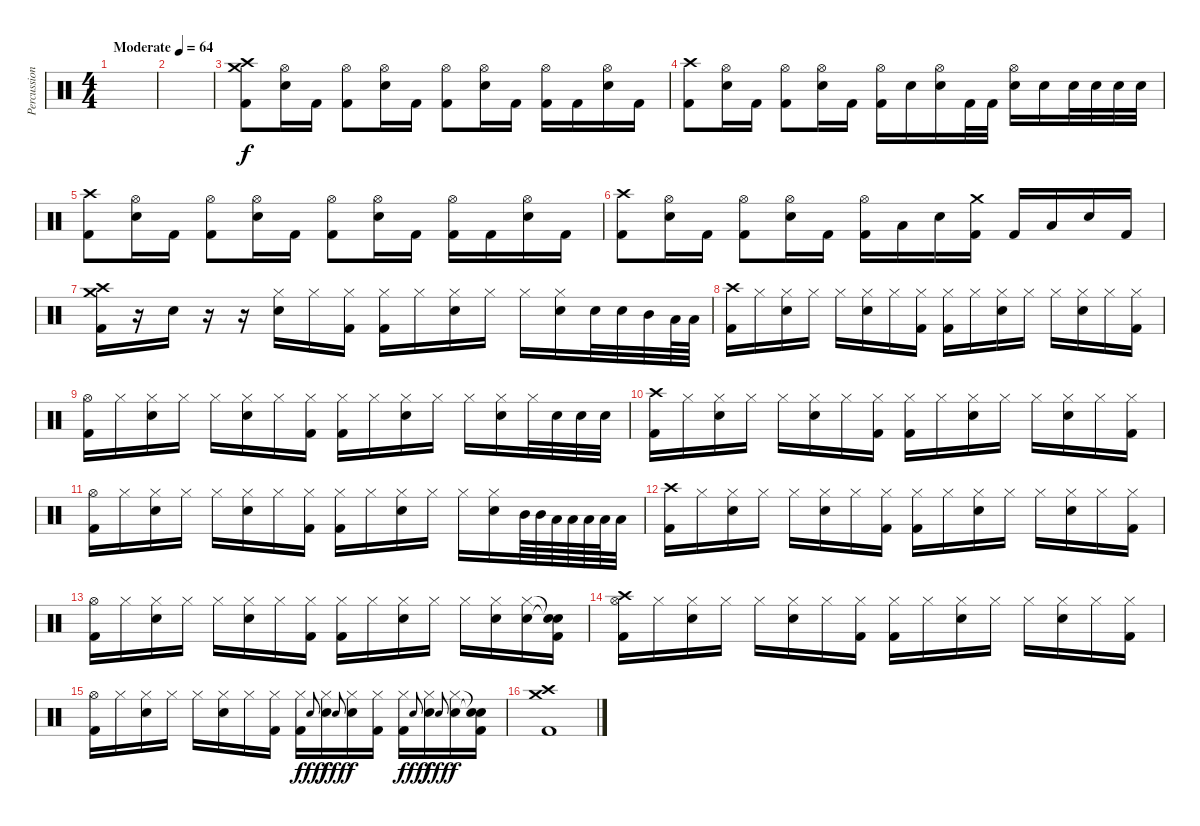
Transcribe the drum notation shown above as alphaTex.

\track ("Percussion" "Percussion") {instrument percussion}
\staff {score}
\articulation defaults
\ts (4 4)
\tempo (64 "Moderate")
\clef neutral
\ks c
|
|
("Crash high (hit)" "Crash medium (hit)" "Kick (hit) 2").8 ("Hi-Hat (open)" "Electric Snare (hit)").16 "Kick (hit) 2".16 ("Hi-Hat (open)" "Kick (hit) 2").8 ("Hi-Hat (open)" "Electric Snare (hit)").16 "Kick (hit) 2".16 ("Hi-Hat (open)" "Kick (hit) 2").8 ("Hi-Hat (open)" "Electric Snare (hit)").16 "Kick (hit) 2".16 ("Hi-Hat (open)" "Kick (hit) 2").16 "Kick (hit) 2".16 ("Hi-Hat (open)" "Electric Snare (hit)").16 "Kick (hit) 2".16 |
("Crash high (hit)" "Kick (hit) 2").8 ("Hi-Hat (open)" "Electric Snare (hit)").16 "Kick (hit) 2".16 ("Hi-Hat (open)" "Kick (hit) 2").8 ("Hi-Hat (open)" "Electric Snare (hit)").16 "Kick (hit) 2".16 ("Hi-Hat (open)" "Kick (hit) 2").16 "Electric Snare (hit)".16 ("Hi-Hat (open)" "Electric Snare (hit)").16 "Kick (hit) 2".32 "Kick (hit) 2".32 ("Hi-Hat (open)" "Electric Snare (hit)").16 "Electric Snare (hit)".16 "Electric Snare (hit)".32 "Electric Snare (hit)".32 "Electric Snare (hit)".32 "Electric Snare (hit)".32 |
("Crash high (hit)" "Kick (hit) 2").8 ("Hi-Hat (open)" "Electric Snare (hit)").16 "Kick (hit) 2".16 ("Hi-Hat (open)" "Kick (hit) 2").8 ("Hi-Hat (open)" "Electric Snare (hit)").16 "Kick (hit) 2".16 ("Hi-Hat (open)" "Kick (hit) 2").8 ("Hi-Hat (open)" "Electric Snare (hit)").16 "Kick (hit) 2".16 ("Hi-Hat (open)" "Kick (hit) 2").16 "Kick (hit) 2".16 ("Hi-Hat (open)" "Electric Snare (hit)").16 "Kick (hit) 2".16 |
("Crash high (hit)" "Kick (hit) 2").8 ("Hi-Hat (open)" "Electric Snare (hit)").16 "Kick (hit) 2".16 ("Hi-Hat (open)" "Kick (hit) 2").8 ("Hi-Hat (open)" "Electric Snare (hit)").16 "Kick (hit) 2".16 ("Hi-Hat (open)" "Kick (hit) 2").16 "Low Tom (hit)".16 "Electric Snare (hit)".16 ("Crash medium (hit)" "Kick (hit) 2").16 "Kick (hit) 2".16 "Low Floor Tom (hit)".16 "Electric Snare (hit)".16 "Kick (hit) 2".16 |
("Crash high (hit)" "Crash medium (hit)" "Kick (hit) 2").16 r.16 "Electric Snare (hit)".16 r.16 r.16 ("Hi-Hat (closed)" "Electric Snare (hit)").16 "Hi-Hat (closed)".16 ("Hi-Hat (closed)" "Kick (hit) 2").16 ("Hi-Hat (closed)" "Kick (hit) 2").16 "Hi-Hat (closed)".16 ("Hi-Hat (closed)" "Electric Snare (hit)").16 "Hi-Hat (closed)".16 "Hi-Hat (closed)".16 ("Hi-Hat (closed)" "Electric Snare (hit)").16 "Electric Snare (hit)".32 "Electric Snare (hit)".32 "Mid Tom (hit)".32 "Low Tom (hit)".64 "Low Floor Tom (hit)".64 |
("Crash high (hit)" "Kick (hit) 2").16 "Hi-Hat (closed)".16 ("Hi-Hat (closed)" "Electric Snare (hit)").16 "Hi-Hat (closed)".16 "Hi-Hat (closed)".16 ("Hi-Hat (closed)" "Electric Snare (hit)").16 "Hi-Hat (closed)".16 ("Hi-Hat (closed)" "Kick (hit) 2").16 ("Hi-Hat (closed)" "Kick (hit) 2").16 "Hi-Hat (closed)".16 ("Hi-Hat (closed)" "Electric Snare (hit)").16 "Hi-Hat (closed)".16 "Hi-Hat (closed)".16 ("Hi-Hat (closed)" "Electric Snare (hit)").16 "Hi-Hat (closed)".16 ("Hi-Hat (closed)" "Kick (hit) 2").16 |
("Hi-Hat (open)" "Kick (hit) 2").16 "Hi-Hat (closed)".16 ("Hi-Hat (closed)" "Electric Snare (hit)").16 "Hi-Hat (closed)".16 "Hi-Hat (closed)".16 ("Hi-Hat (closed)" "Electric Snare (hit)").16 "Hi-Hat (closed)".16 ("Hi-Hat (closed)" "Kick (hit) 2").16 ("Hi-Hat (closed)" "Kick (hit) 2").16 "Hi-Hat (closed)".16 ("Hi-Hat (closed)" "Electric Snare (hit)").16 "Hi-Hat (closed)".16 "Hi-Hat (closed)".16 ("Hi-Hat (closed)" "Electric Snare (hit)").16 "Hi-Hat (closed)".32 "Electric Snare (hit)".32 "Electric Snare (hit)".32 "Electric Snare (hit)".32 |
("Crash high (hit)" "Kick (hit) 2").16 "Hi-Hat (closed)".16 ("Hi-Hat (closed)" "Electric Snare (hit)").16 "Hi-Hat (closed)".16 "Hi-Hat (closed)".16 ("Hi-Hat (closed)" "Electric Snare (hit)").16 "Hi-Hat (closed)".16 ("Hi-Hat (closed)" "Kick (hit) 2").16 ("Hi-Hat (closed)" "Kick (hit) 2").16 "Hi-Hat (closed)".16 ("Hi-Hat (closed)" "Electric Snare (hit)").16 "Hi-Hat (closed)".16 "Hi-Hat (closed)".16 ("Hi-Hat (closed)" "Electric Snare (hit)").16 "Hi-Hat (closed)".16 ("Hi-Hat (closed)" "Kick (hit) 2").16 |
("Hi-Hat (open)" "Kick (hit) 2").16 "Hi-Hat (closed)".16 ("Hi-Hat (closed)" "Electric Snare (hit)").16 "Hi-Hat (closed)".16 "Hi-Hat (closed)".16 ("Hi-Hat (closed)" "Electric Snare (hit)").16 "Hi-Hat (closed)".16 ("Hi-Hat (closed)" "Kick (hit) 2").16 ("Hi-Hat (closed)" "Kick (hit) 2").16 "Hi-Hat (closed)".16 ("Hi-Hat (closed)" "Electric Snare (hit)").16 "Hi-Hat (closed)".16 "Hi-Hat (closed)".16 ("Hi-Hat (closed)" "Electric Snare (hit)").16 "Mid Tom (hit)".64 "Mid Tom (hit)".64 "Low Tom (hit)".64 "Low Tom (hit)".64 "Low Floor Tom (hit)".64 "Low Floor Tom (hit)".64 "Low Floor Tom (hit)".32 |
("Crash high (hit)" "Kick (hit) 2").16 "Hi-Hat (closed)".16 ("Hi-Hat (closed)" "Electric Snare (hit)").16 "Hi-Hat (closed)".16 "Hi-Hat (closed)".16 ("Hi-Hat (closed)" "Electric Snare (hit)").16 "Hi-Hat (closed)".16 ("Hi-Hat (closed)" "Kick (hit) 2").16 ("Hi-Hat (closed)" "Kick (hit) 2").16 "Hi-Hat (closed)".16 ("Hi-Hat (closed)" "Electric Snare (hit)").16 "Hi-Hat (closed)".16 "Hi-Hat (closed)".16 ("Hi-Hat (closed)" "Electric Snare (hit)").16 "Hi-Hat (closed)".16 ("Hi-Hat (closed)" "Kick (hit) 2").16 |
("Hi-Hat (open)" "Kick (hit) 2").16 "Hi-Hat (closed)".16 ("Hi-Hat (closed)" "Electric Snare (hit)").16 "Hi-Hat (closed)".16 "Hi-Hat (closed)".16 ("Hi-Hat (closed)" "Electric Snare (hit)").16 "Hi-Hat (closed)".16 ("Hi-Hat (closed)" "Kick (hit) 2").16 ("Hi-Hat (closed)" "Kick (hit) 2").16 "Hi-Hat (closed)".16 ("Hi-Hat (closed)" "Electric Snare (hit)").16 "Hi-Hat (closed)".16 "Hi-Hat (closed)".16 ("Hi-Hat (closed)" "Electric Snare (hit)").16 ("Hi-Hat (closed)" "Electric Snare (hit)").16 ("Snare (hit)"{t} "Snare (hit)"{t} "Kick (hit) 2").16 |
("Crash high (hit)" "Hi-Hat (open)" "Kick (hit) 2").16 "Hi-Hat (closed)".16 ("Hi-Hat (closed)" "Electric Snare (hit)").16 "Hi-Hat (closed)".16 "Hi-Hat (closed)".16 ("Hi-Hat (closed)" "Electric Snare (hit)").16 "Hi-Hat (closed)".16 ("Hi-Hat (closed)" "Kick (hit) 2").16 ("Hi-Hat (closed)" "Kick (hit) 2").16 "Hi-Hat (closed)".16 ("Hi-Hat (closed)" "Electric Snare (hit)").16 "Hi-Hat (closed)".16 "Hi-Hat (closed)".16 ("Hi-Hat (closed)" "Electric Snare (hit)").16 "Hi-Hat (closed)".16 ("Hi-Hat (closed)" "Kick (hit) 2").16 |
("Hi-Hat (open)" "Kick (hit) 2").16 "Hi-Hat (closed)".16 ("Hi-Hat (closed)" "Electric Snare (hit)").16 "Hi-Hat (closed)".16 "Hi-Hat (closed)".16 ("Hi-Hat (closed)" "Electric Snare (hit)").16 "Hi-Hat (closed)".16 ("Hi-Hat (closed)" "Kick (hit) 2").16 ("Hi-Hat (closed)" "Kick (hit) 2").16 "Electric Snare (hit)".8{gr onbeat dy fff} ("Hi-Hat (closed)" "Electric Snare (hit)").16{dy f} "Electric Snare (hit)".8{gr onbeat dy fff} ("Hi-Hat (closed)" "Electric Snare (hit)").16{dy f} ("Hi-Hat (closed)" "Kick (hit) 2").16 ("Hi-Hat (closed)" "Kick (hit) 2").16 "Electric Snare (hit)".8{gr onbeat dy fff} ("Hi-Hat (closed)" "Electric Snare (hit)").16{dy f} "Electric Snare (hit)".8{gr onbeat dy fff} ("Hi-Hat (closed)" "Electric Snare (hit)").16{dy f} ("Snare (hit)"{t} "Snare (hit)"{t} "Kick (hit) 2").16 |
("Crash high (hit)" "Crash medium (hit)" "Kick (hit) 2").1
